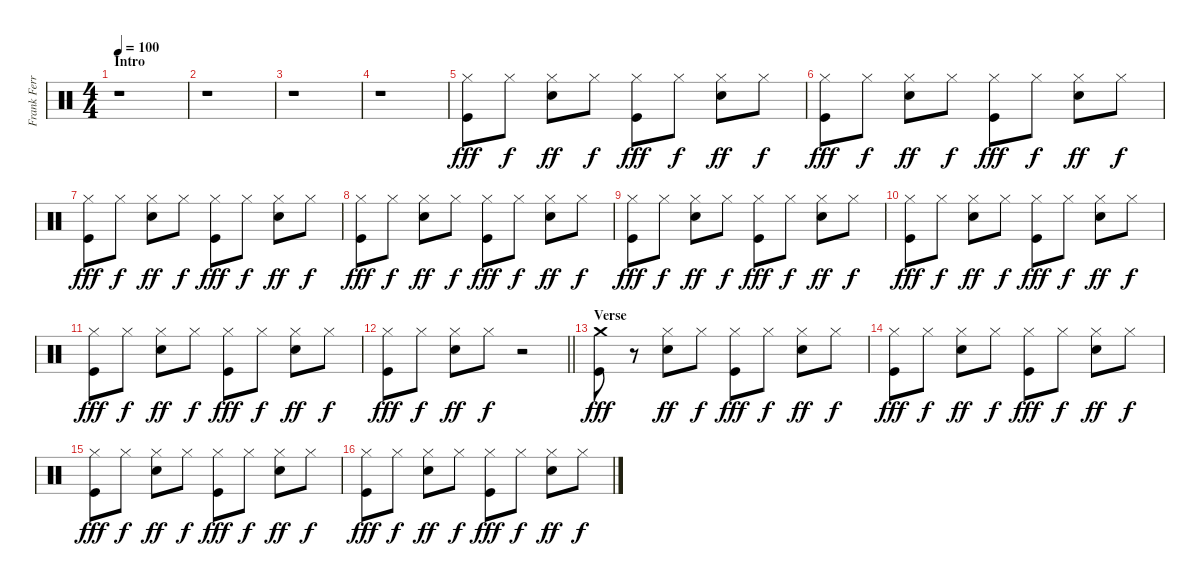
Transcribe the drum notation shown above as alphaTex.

\track ("Frank Ferrer" "Frank Ferr") {instrument percussion}
\staff {score}
\articulation defaults
\ts (4 4)
\section ("" "Intro")
\tempo 100
\clef neutral
\ks c
r.1{dy fff} |
r.1 |
r.1 |
r.1 |
("Kick (hit)" "Hi-Hat (closed)").8 "Hi-Hat (closed)".8{dy f} ("Snare (hit) 2" "Hi-Hat (closed)").8{dy ff} "Hi-Hat (closed)".8{dy f} ("Kick (hit)" "Hi-Hat (closed)").8{dy fff} "Hi-Hat (closed)".8{dy f} ("Snare (hit) 2" "Hi-Hat (closed)").8{dy ff} "Hi-Hat (closed)".8{dy f} |
("Kick (hit)" "Hi-Hat (closed)").8{dy fff} "Hi-Hat (closed)".8{dy f} ("Snare (hit) 2" "Hi-Hat (closed)").8{dy ff} "Hi-Hat (closed)".8{dy f} ("Kick (hit)" "Hi-Hat (closed)").8{dy fff} "Hi-Hat (closed)".8{dy f} ("Snare (hit) 2" "Hi-Hat (closed)").8{dy ff} "Hi-Hat (closed)".8{dy f} |
("Kick (hit)" "Hi-Hat (closed)").8{dy fff} "Hi-Hat (closed)".8{dy f} ("Snare (hit) 2" "Hi-Hat (closed)").8{dy ff} "Hi-Hat (closed)".8{dy f} ("Kick (hit)" "Hi-Hat (closed)").8{dy fff} "Hi-Hat (closed)".8{dy f} ("Snare (hit) 2" "Hi-Hat (closed)").8{dy ff} "Hi-Hat (closed)".8{dy f} |
("Kick (hit)" "Hi-Hat (closed)").8{dy fff} "Hi-Hat (closed)".8{dy f} ("Snare (hit) 2" "Hi-Hat (closed)").8{dy ff} "Hi-Hat (closed)".8{dy f} ("Kick (hit)" "Hi-Hat (closed)").8{dy fff} "Hi-Hat (closed)".8{dy f} ("Snare (hit) 2" "Hi-Hat (closed)").8{dy ff} "Hi-Hat (closed)".8{dy f} |
("Kick (hit)" "Hi-Hat (closed)").8{dy fff} "Hi-Hat (closed)".8{dy f} ("Snare (hit) 2" "Hi-Hat (closed)").8{dy ff} "Hi-Hat (closed)".8{dy f} ("Kick (hit)" "Hi-Hat (closed)").8{dy fff} "Hi-Hat (closed)".8{dy f} ("Snare (hit) 2" "Hi-Hat (closed)").8{dy ff} "Hi-Hat (closed)".8{dy f} |
("Kick (hit)" "Hi-Hat (closed)").8{dy fff} "Hi-Hat (closed)".8{dy f} ("Snare (hit) 2" "Hi-Hat (closed)").8{dy ff} "Hi-Hat (closed)".8{dy f} ("Kick (hit)" "Hi-Hat (closed)").8{dy fff} "Hi-Hat (closed)".8{dy f} ("Snare (hit) 2" "Hi-Hat (closed)").8{dy ff} "Hi-Hat (closed)".8{dy f} |
("Kick (hit)" "Hi-Hat (closed)").8{dy fff} "Hi-Hat (closed)".8{dy f} ("Snare (hit) 2" "Hi-Hat (closed)").8{dy ff} "Hi-Hat (closed)".8{dy f} ("Kick (hit)" "Hi-Hat (closed)").8{dy fff} "Hi-Hat (closed)".8{dy f} ("Snare (hit) 2" "Hi-Hat (closed)").8{dy ff} "Hi-Hat (closed)".8{dy f} |
\barLineRight lightlight
("Kick (hit)" "Hi-Hat (closed)").8{dy fff} "Hi-Hat (closed)".8{dy f} ("Snare (hit) 2" "Hi-Hat (closed)").8{dy ff} "Hi-Hat (closed)".8{dy f} r.2 |
\section ("" "Verse")
("Kick (hit)" "Crash medium (hit)").8{dy fff} r.8 ("Snare (hit) 2" "Hi-Hat (closed)").8{dy ff} "Hi-Hat (closed)".8{dy f} ("Kick (hit)" "Hi-Hat (closed)").8{dy fff} "Hi-Hat (closed)".8{dy f} ("Snare (hit) 2" "Hi-Hat (closed)").8{dy ff} "Hi-Hat (closed)".8{dy f} |
("Kick (hit)" "Hi-Hat (closed)").8{dy fff} "Hi-Hat (closed)".8{dy f} ("Snare (hit) 2" "Hi-Hat (closed)").8{dy ff} "Hi-Hat (closed)".8{dy f} ("Kick (hit)" "Hi-Hat (closed)").8{dy fff} "Hi-Hat (closed)".8{dy f} ("Snare (hit) 2" "Hi-Hat (closed)").8{dy ff} "Hi-Hat (closed)".8{dy f} |
("Kick (hit)" "Hi-Hat (closed)").8{dy fff} "Hi-Hat (closed)".8{dy f} ("Snare (hit) 2" "Hi-Hat (closed)").8{dy ff} "Hi-Hat (closed)".8{dy f} ("Kick (hit)" "Hi-Hat (closed)").8{dy fff} "Hi-Hat (closed)".8{dy f} ("Snare (hit) 2" "Hi-Hat (closed)").8{dy ff} "Hi-Hat (closed)".8{dy f} |
("Kick (hit)" "Hi-Hat (closed)").8{dy fff} "Hi-Hat (closed)".8{dy f} ("Snare (hit) 2" "Hi-Hat (closed)").8{dy ff} "Hi-Hat (closed)".8{dy f} ("Kick (hit)" "Hi-Hat (closed)").8{dy fff} "Hi-Hat (closed)".8{dy f} ("Snare (hit) 2" "Hi-Hat (closed)").8{dy ff} "Hi-Hat (closed)".8{dy f}
